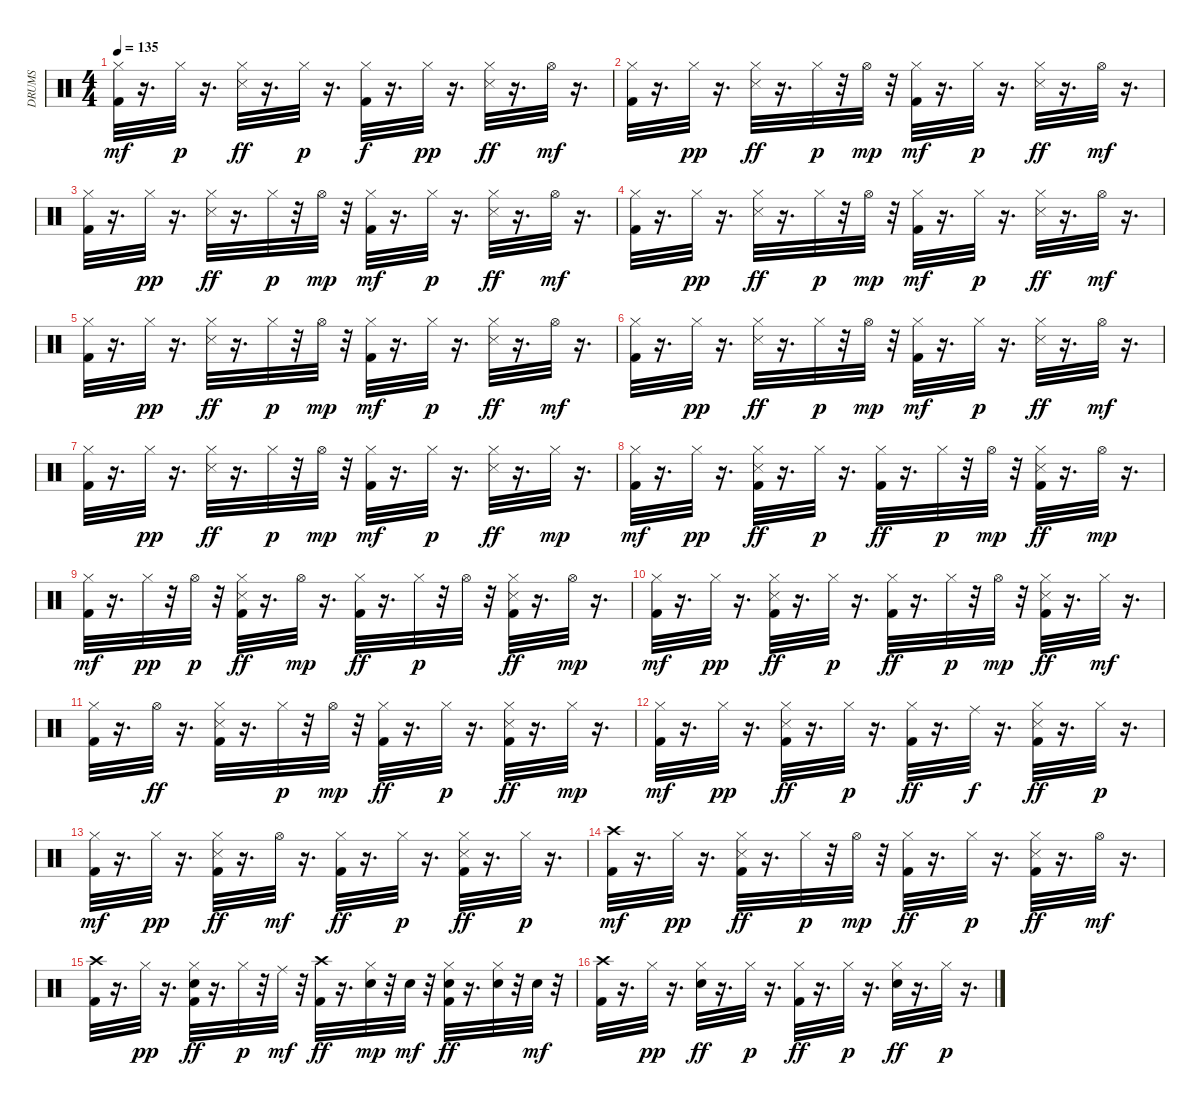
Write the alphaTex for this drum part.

\track ("DRUMS" "DRUMS") {instrument percussion}
\staff {score}
\articulation defaults
\ts (4 4)
\tempo 135
\clef neutral
\ks c
("Kick (hit) 2" "Hi-Hat (closed)").32{dy mf} r.16{d} "Hi-Hat (closed)".32{dy p} r.16{d} ("Hi-Hat (closed)" "Snare (side stick) 3").32{dy ff} r.16{d} "Hi-Hat (closed)".32{dy p} r.16{d} ("Kick (hit) 2" "Hi-Hat (closed)").32{dy f} r.16{d} "Hi-Hat (closed)".32{dy pp} r.16{d} ("Hi-Hat (closed)" "Snare (side stick) 3").32{dy ff} r.16{d} "Hi-Hat (open)".32{dy mf} r.16{d} |
("Kick (hit) 2" "Hi-Hat (closed)").32 r.16{d} "Hi-Hat (closed)".32{dy pp} r.16{d} ("Hi-Hat (closed)" "Snare (side stick) 3").32{dy ff} r.16{d} "Hi-Hat (closed)".32{dy p} r.32 "Hi-Hat (open)".32{dy mp} r.32 ("Hi-Hat (closed)" "Kick (hit) 2").32{dy mf} r.16{d} "Hi-Hat (closed)".32{dy p} r.16{d} ("Snare (side stick) 3" "Hi-Hat (closed)").32{dy ff} r.16{d} "Hi-Hat (open)".32{dy mf} r.16{d} |
("Kick (hit) 2" "Hi-Hat (closed)").32 r.16{d} "Hi-Hat (closed)".32{dy pp} r.16{d} ("Hi-Hat (closed)" "Snare (side stick) 3").32{dy ff} r.16{d} "Hi-Hat (closed)".32{dy p} r.32 "Hi-Hat (open)".32{dy mp} r.32 ("Hi-Hat (closed)" "Kick (hit) 2").32{dy mf} r.16{d} "Hi-Hat (closed)".32{dy p} r.16{d} ("Snare (side stick) 3" "Hi-Hat (closed)").32{dy ff} r.16{d} "Hi-Hat (open)".32{dy mf} r.16{d} |
("Kick (hit) 2" "Hi-Hat (closed)").32 r.16{d} "Hi-Hat (closed)".32{dy pp} r.16{d} ("Hi-Hat (closed)" "Snare (side stick) 3").32{dy ff} r.16{d} "Hi-Hat (closed)".32{dy p} r.32 "Hi-Hat (open)".32{dy mp} r.32 ("Hi-Hat (closed)" "Kick (hit) 2").32{dy mf} r.16{d} "Hi-Hat (closed)".32{dy p} r.16{d} ("Snare (side stick) 3" "Hi-Hat (closed)").32{dy ff} r.16{d} "Hi-Hat (open)".32{dy mf} r.16{d} |
("Kick (hit) 2" "Hi-Hat (closed)").32 r.16{d} "Hi-Hat (closed)".32{dy pp} r.16{d} ("Hi-Hat (closed)" "Snare (side stick) 3").32{dy ff} r.16{d} "Hi-Hat (closed)".32{dy p} r.32 "Hi-Hat (open)".32{dy mp} r.32 ("Hi-Hat (closed)" "Kick (hit) 2").32{dy mf} r.16{d} "Hi-Hat (closed)".32{dy p} r.16{d} ("Snare (side stick) 3" "Hi-Hat (closed)").32{dy ff} r.16{d} "Hi-Hat (open)".32{dy mf} r.16{d} |
("Kick (hit) 2" "Hi-Hat (closed)").32 r.16{d} "Hi-Hat (closed)".32{dy pp} r.16{d} ("Hi-Hat (closed)" "Snare (side stick) 3").32{dy ff} r.16{d} "Hi-Hat (closed)".32{dy p} r.32 "Hi-Hat (open)".32{dy mp} r.32 ("Hi-Hat (closed)" "Kick (hit) 2").32{dy mf} r.16{d} "Hi-Hat (closed)".32{dy p} r.16{d} ("Snare (side stick) 3" "Hi-Hat (closed)").32{dy ff} r.16{d} "Hi-Hat (open)".32{dy mf} r.16{d} |
("Kick (hit) 2" "Hi-Hat (closed)").32 r.16{d} "Hi-Hat (closed)".32{dy pp} r.16{d} ("Hi-Hat (closed)" "Snare (side stick) 3").32{dy ff} r.16{d} "Hi-Hat (closed)".32{dy p} r.32 "Hi-Hat (open)".32{dy mp} r.32 ("Hi-Hat (closed)" "Kick (hit) 2").32{dy mf} r.16{d} "Hi-Hat (closed)".32{dy p} r.16{d} ("Snare (side stick) 3" "Hi-Hat (closed)").32{dy ff} r.16{d} "Hi-Hat (closed)".32{dy mp} r.16{d} |
("Kick (hit) 2" "Hi-Hat (closed)").32{dy mf} r.16{d} "Hi-Hat (closed)".32{dy pp} r.16{d} ("Hi-Hat (closed)" "Snare (side stick) 3" "Kick (hit) 2").32{dy ff} r.16{d} "Hi-Hat (closed)".32{dy p} r.16{d} ("Hi-Hat (closed)" "Kick (hit) 2").32{dy ff} r.16{d} "Hi-Hat (closed)".32{dy p} r.32 "Hi-Hat (open)".32{dy mp} r.32 ("Snare (side stick) 3" "Kick (hit) 2" "Hi-Hat (closed)").32{dy ff} r.16{d} "Hi-Hat (open)".32{dy mp} r.16{d} |
("Kick (hit) 2" "Hi-Hat (closed)").32{dy mf} r.16{d} "Hi-Hat (closed)".32{dy pp} r.32 "Hi-Hat (open)".32{dy p} r.32 ("Hi-Hat (closed)" "Snare (side stick) 3" "Kick (hit) 2").32{dy ff} r.16{d} "Hi-Hat (open)".32{dy mp} r.16{d} ("Hi-Hat (closed)" "Kick (hit) 2").32{dy ff} r.16{d} "Hi-Hat (closed)".32{dy p} r.32 "Hi-Hat (open)".32 r.32 ("Snare (side stick) 3" "Kick (hit) 2" "Hi-Hat (closed)").32{dy ff} r.16{d} "Hi-Hat (open)".32{dy mp} r.16{d} |
("Kick (hit) 2" "Hi-Hat (closed)").32{dy mf} r.16{d} "Hi-Hat (closed)".32{dy pp} r.16{d} ("Hi-Hat (closed)" "Snare (side stick) 3" "Kick (hit) 2").32{dy ff} r.16{d} "Hi-Hat (closed)".32{dy p} r.16{d} ("Hi-Hat (closed)" "Kick (hit) 2").32{dy ff} r.16{d} "Hi-Hat (closed)".32{dy p} r.32 "Hi-Hat (open)".32{dy mp} r.32 ("Snare (side stick) 3" "Kick (hit) 2" "Hi-Hat (closed)").32{dy ff} r.16{d} "Hi-Hat (closed)".32{dy mf} r.16{d} |
("Kick (hit) 2" "Hi-Hat (closed)").32 r.16{d} "Hi-Hat (open)".32{dy ff} r.16{d} ("Hi-Hat (closed)" "Snare (side stick) 3" "Kick (hit) 2").32 r.16{d} "Hi-Hat (closed)".32{dy p} r.32 "Hi-Hat (open)".32{dy mp} r.32 ("Hi-Hat (closed)" "Kick (hit) 2").32{dy ff} r.16{d} "Hi-Hat (closed)".32{dy p} r.16{d} ("Snare (side stick) 3" "Kick (hit) 2" "Hi-Hat (closed)").32{dy ff} r.16{d} "Hi-Hat (closed)".32{dy mp} r.16{d} |
("Kick (hit) 2" "Hi-Hat (closed)").32{dy mf} r.16{d} "Hi-Hat (closed)".32{dy pp} r.16{d} ("Hi-Hat (closed)" "Snare (side stick) 3" "Kick (hit) 2").32{dy ff} r.16{d} "Hi-Hat (closed)".32{dy p} r.16{d} ("Hi-Hat (closed)" "Kick (hit) 2").32{dy ff} r.16{d} "Ride (middle)".32{dy f} r.16{d} ("Snare (side stick) 3" "Kick (hit) 2" "Hi-Hat (closed)").32{dy ff} r.16{d} "Hi-Hat (closed)".32{dy p} r.16{d} |
("Kick (hit) 2" "Hi-Hat (closed)").32{dy mf} r.16{d} "Hi-Hat (closed)".32{dy pp} r.16{d} ("Hi-Hat (closed)" "Snare (side stick) 3" "Kick (hit) 2").32{dy ff} r.16{d} "Hi-Hat (open)".32{dy mf} r.16{d} ("Hi-Hat (closed)" "Kick (hit) 2").32{dy ff} r.16{d} "Hi-Hat (closed)".32{dy p} r.16{d} ("Snare (side stick) 3" "Kick (hit) 2" "Hi-Hat (closed)").32{dy ff} r.16{d} "Hi-Hat (closed)".32{dy p} r.16{d} |
("Kick (hit) 2" "Crash high (hit)").32{dy mf} r.16{d} "Hi-Hat (closed)".32{dy pp} r.16{d} ("Hi-Hat (closed)" "Snare (side stick) 3" "Kick (hit) 2").32{dy ff} r.16{d} "Hi-Hat (closed)".32{dy p} r.32 "Hi-Hat (open)".32{dy mp} r.32 ("Hi-Hat (closed)" "Kick (hit) 2").32{dy ff} r.16{d} "Hi-Hat (closed)".32{dy p} r.16{d} ("Snare (side stick) 3" "Kick (hit) 2" "Hi-Hat (closed)").32{dy ff} r.16{d} "Hi-Hat (open)".32{dy mf} r.16{d} |
("Kick (hit) 2" "Crash high (hit)").32 r.16{d} "Hi-Hat (closed)".32{dy pp} r.16{d} ("Hi-Hat (closed)" "Electric Snare (hit)" "Kick (hit) 2").32{dy ff} r.16{d} "Hi-Hat (closed)".32{dy p} r.32 "Ride (middle)".32{dy mf} r.32 ("Crash high (hit)" "Kick (hit) 2").32{dy ff} r.16{d} ("Hi-Hat (closed)" "Electric Snare (hit)").32{dy mp} r.32 "Electric Snare (hit)".32{dy mf} r.32 ("Electric Snare (hit)" "Kick (hit) 2" "Hi-Hat (closed)").32{dy ff} r.16{d} ("Hi-Hat (closed)" "Electric Snare (hit)").32 r.32 "Electric Snare (hit)".32{dy mf} r.32 |
("Kick (hit) 2" "Crash high (hit)").32 r.16{d} "Hi-Hat (closed)".32{dy pp} r.16{d} ("Hi-Hat (closed)" "Electric Snare (hit)").32{dy ff} r.16{d} "Hi-Hat (closed)".32{dy p} r.16{d} ("Hi-Hat (closed)" "Kick (hit) 2").32{dy ff} r.16{d} "Hi-Hat (closed)".32{dy p} r.16{d} ("Electric Snare (hit)" "Hi-Hat (closed)").32{dy ff} r.16{d} "Hi-Hat (closed)".32{dy p} r.16{d}
